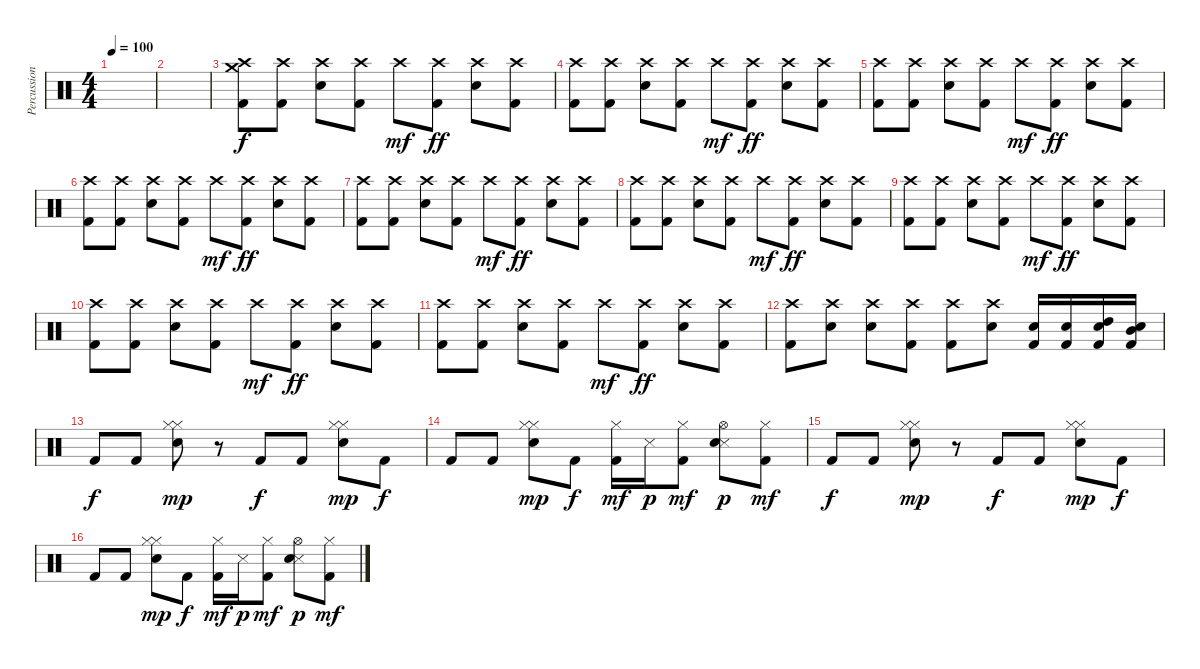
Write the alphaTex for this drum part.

\track ("Percussions" "Percussion") {instrument percussion}
\staff {score}
\articulation defaults
\ts (4 4)
\tempo 100
\clef neutral
\ks c
|
|
("Crash high (hit)" "Crash medium (hit)" "Kick (hit) 2").8 ("Crash high (hit)" "Kick (hit) 2").8 ("Crash high (hit)" "Electric Snare (hit)").8 ("Crash high (hit)" "Kick (hit) 2").8 "Crash high (hit)".8{dy mf} ("Crash high (hit)" "Kick (hit) 2").8{dy ff} ("Crash high (hit)" "Electric Snare (hit)").8 ("Crash high (hit)" "Kick (hit) 2").8 |
("Crash high (hit)" "Kick (hit) 2").8 ("Crash high (hit)" "Kick (hit) 2").8 ("Crash high (hit)" "Electric Snare (hit)").8 ("Crash high (hit)" "Kick (hit) 2").8 "Crash high (hit)".8{dy mf} ("Crash high (hit)" "Kick (hit) 2").8{dy ff} ("Crash high (hit)" "Electric Snare (hit)").8 ("Crash high (hit)" "Kick (hit) 2").8 |
("Crash high (hit)" "Kick (hit) 2").8 ("Crash high (hit)" "Kick (hit) 2").8 ("Crash high (hit)" "Electric Snare (hit)").8 ("Crash high (hit)" "Kick (hit) 2").8 "Crash high (hit)".8{dy mf} ("Crash high (hit)" "Kick (hit) 2").8{dy ff} ("Crash high (hit)" "Electric Snare (hit)").8 ("Crash high (hit)" "Kick (hit) 2").8 |
("Crash high (hit)" "Kick (hit) 2").8 ("Crash high (hit)" "Kick (hit) 2").8 ("Crash high (hit)" "Electric Snare (hit)").8 ("Crash high (hit)" "Kick (hit) 2").8 "Crash high (hit)".8{dy mf} ("Crash high (hit)" "Kick (hit) 2").8{dy ff} ("Crash high (hit)" "Electric Snare (hit)").8 ("Crash high (hit)" "Kick (hit) 2").8 |
("Crash high (hit)" "Kick (hit) 2").8 ("Crash high (hit)" "Kick (hit) 2").8 ("Crash high (hit)" "Electric Snare (hit)").8 ("Crash high (hit)" "Kick (hit) 2").8 "Crash high (hit)".8{dy mf} ("Crash high (hit)" "Kick (hit) 2").8{dy ff} ("Crash high (hit)" "Electric Snare (hit)").8 ("Crash high (hit)" "Kick (hit) 2").8 |
("Crash high (hit)" "Kick (hit) 2").8 ("Crash high (hit)" "Kick (hit) 2").8 ("Crash high (hit)" "Electric Snare (hit)").8 ("Crash high (hit)" "Kick (hit) 2").8 "Crash high (hit)".8{dy mf} ("Crash high (hit)" "Kick (hit) 2").8{dy ff} ("Crash high (hit)" "Electric Snare (hit)").8 ("Crash high (hit)" "Kick (hit) 2").8 |
("Crash high (hit)" "Kick (hit) 2").8 ("Crash high (hit)" "Kick (hit) 2").8 ("Crash high (hit)" "Electric Snare (hit)").8 ("Crash high (hit)" "Kick (hit) 2").8 "Crash high (hit)".8{dy mf} ("Crash high (hit)" "Kick (hit) 2").8{dy ff} ("Crash high (hit)" "Electric Snare (hit)").8 ("Crash high (hit)" "Kick (hit) 2").8 |
("Crash high (hit)" "Kick (hit) 2").8 ("Crash high (hit)" "Kick (hit) 2").8 ("Crash high (hit)" "Electric Snare (hit)").8 ("Crash high (hit)" "Kick (hit) 2").8 "Crash high (hit)".8{dy mf} ("Crash high (hit)" "Kick (hit) 2").8{dy ff} ("Crash high (hit)" "Electric Snare (hit)").8 ("Crash high (hit)" "Kick (hit) 2").8 |
("Crash high (hit)" "Kick (hit) 2").8 ("Crash high (hit)" "Kick (hit) 2").8 ("Crash high (hit)" "Electric Snare (hit)").8 ("Crash high (hit)" "Kick (hit) 2").8 "Crash high (hit)".8{dy mf} ("Crash high (hit)" "Kick (hit) 2").8{dy ff} ("Crash high (hit)" "Electric Snare (hit)").8 ("Crash high (hit)" "Kick (hit) 2").8 |
("Crash high (hit)" "Kick (hit) 2").8 ("Crash high (hit)" "Electric Snare (hit)").8 ("Crash high (hit)" "Electric Snare (hit)").8 ("Crash high (hit)" "Kick (hit) 2").8 ("Crash high (hit)" "Kick (hit) 2").8 ("Crash high (hit)" "Electric Snare (hit)").8 ("Electric Snare (hit)" "Kick (hit) 2").16 ("Electric Snare (hit)" "Kick (hit) 2").16 ("High Tom (hit)" "Electric Snare (hit)" "Kick (hit) 2").16 ("Mid Tom (hit)" "Electric Snare (hit)" "Kick (hit) 2").16 |
"Kick (hit) 2".8{dy f} "Kick (hit) 2".8 ("Hi-Hat (closed)" "Hi-Hat (closed)" "Electric Snare (hit)").8{dy mp} r.8 "Kick (hit) 2".8{dy f} "Kick (hit) 2".8 ("Hi-Hat (closed)" "Hi-Hat (closed)" "Electric Snare (hit)").8{dy mp} "Kick (hit) 2".8{dy f} |
"Kick (hit) 2".8 "Kick (hit) 2".8 ("Hi-Hat (closed)" "Hi-Hat (closed)" "Electric Snare (hit)").8{dy mp} "Kick (hit) 2".8{dy f} ("Hi-Hat (closed)" "Kick (hit) 2").16{dy mf} "Snare (side stick) 3".16{dy p} ("Hi-Hat (closed)" "Kick (hit) 2").8{dy mf} ("Hi-Hat (open)" "Snare (side stick) 3" "Electric Snare (hit)").8{dy p} ("Hi-Hat (closed)" "Kick (hit) 2").8{dy mf} |
"Kick (hit) 2".8{dy f} "Kick (hit) 2".8 ("Hi-Hat (closed)" "Hi-Hat (closed)" "Electric Snare (hit)").8{dy mp} r.8 "Kick (hit) 2".8{dy f} "Kick (hit) 2".8 ("Hi-Hat (closed)" "Hi-Hat (closed)" "Electric Snare (hit)").8{dy mp} "Kick (hit) 2".8{dy f} |
"Kick (hit) 2".8 "Kick (hit) 2".8 ("Hi-Hat (closed)" "Hi-Hat (closed)" "Electric Snare (hit)").8{dy mp} "Kick (hit) 2".8{dy f} ("Hi-Hat (closed)" "Kick (hit) 2").16{dy mf} "Snare (side stick) 3".16{dy p} ("Hi-Hat (closed)" "Kick (hit) 2").8{dy mf} ("Hi-Hat (open)" "Snare (side stick) 3" "Electric Snare (hit)").8{dy p} ("Hi-Hat (closed)" "Kick (hit) 2").8{dy mf}
